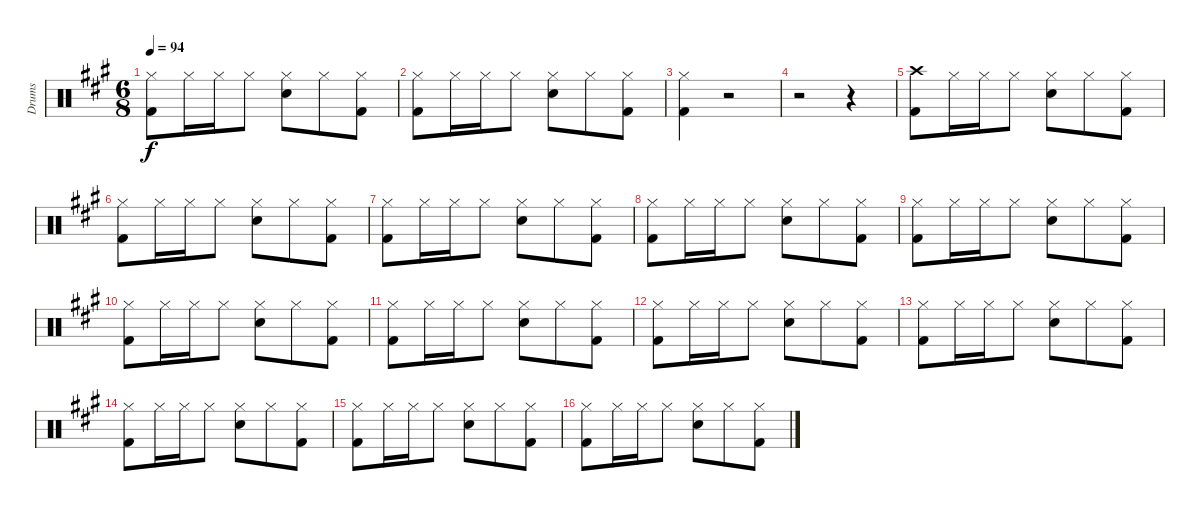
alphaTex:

\track ("Drums" "Drums") {instrument percussion}
\staff {score}
\articulation defaults
\ts (6 8)
\tempo 94
\clef neutral
\ks a
("Hi-Hat (closed)" "Kick (hit) 2").8{dy f} "Hi-Hat (closed)".16 "Hi-Hat (closed)".16 "Hi-Hat (closed)".8 ("Hi-Hat (closed)" "Snare (hit) 2").8 "Hi-Hat (closed)".8 ("Hi-Hat (closed)" "Kick (hit) 2").8 |
("Hi-Hat (closed)" "Kick (hit) 2").8 "Hi-Hat (closed)".16 "Hi-Hat (closed)".16 "Hi-Hat (closed)".8 ("Hi-Hat (closed)" "Snare (hit) 2").8 "Hi-Hat (closed)".8 ("Hi-Hat (closed)" "Kick (hit) 2").8 |
("Hi-Hat (closed)" "Kick (hit) 2").4 r.2 |
r.2 r.4 |
("Crash high (hit)" "Kick (hit) 2").8 "Hi-Hat (closed)".16 "Hi-Hat (closed)".16 "Hi-Hat (closed)".8 ("Hi-Hat (closed)" "Snare (hit) 2").8 "Hi-Hat (closed)".8 ("Hi-Hat (closed)" "Kick (hit) 2").8 |
("Hi-Hat (closed)" "Kick (hit) 2").8 "Hi-Hat (closed)".16 "Hi-Hat (closed)".16 "Hi-Hat (closed)".8 ("Hi-Hat (closed)" "Snare (hit) 2").8 "Hi-Hat (closed)".8 ("Hi-Hat (closed)" "Kick (hit) 2").8 |
("Hi-Hat (closed)" "Kick (hit) 2").8 "Hi-Hat (closed)".16 "Hi-Hat (closed)".16 "Hi-Hat (closed)".8 ("Hi-Hat (closed)" "Snare (hit) 2").8 "Hi-Hat (closed)".8 ("Hi-Hat (closed)" "Kick (hit) 2").8 |
("Hi-Hat (closed)" "Kick (hit) 2").8 "Hi-Hat (closed)".16 "Hi-Hat (closed)".16 "Hi-Hat (closed)".8 ("Hi-Hat (closed)" "Snare (hit) 2").8 "Hi-Hat (closed)".8 ("Hi-Hat (closed)" "Kick (hit) 2").8 |
("Hi-Hat (closed)" "Kick (hit) 2").8 "Hi-Hat (closed)".16 "Hi-Hat (closed)".16 "Hi-Hat (closed)".8 ("Hi-Hat (closed)" "Snare (hit) 2").8 "Hi-Hat (closed)".8 ("Hi-Hat (closed)" "Kick (hit) 2").8 |
("Hi-Hat (closed)" "Kick (hit) 2").8 "Hi-Hat (closed)".16 "Hi-Hat (closed)".16 "Hi-Hat (closed)".8 ("Hi-Hat (closed)" "Snare (hit) 2").8 "Hi-Hat (closed)".8 ("Hi-Hat (closed)" "Kick (hit) 2").8 |
("Hi-Hat (closed)" "Kick (hit) 2").8 "Hi-Hat (closed)".16 "Hi-Hat (closed)".16 "Hi-Hat (closed)".8 ("Hi-Hat (closed)" "Snare (hit) 2").8 "Hi-Hat (closed)".8 ("Hi-Hat (closed)" "Kick (hit) 2").8 |
("Hi-Hat (closed)" "Kick (hit) 2").8 "Hi-Hat (closed)".16 "Hi-Hat (closed)".16 "Hi-Hat (closed)".8 ("Hi-Hat (closed)" "Snare (hit) 2").8 "Hi-Hat (closed)".8 ("Hi-Hat (closed)" "Kick (hit) 2").8 |
("Hi-Hat (closed)" "Kick (hit) 2").8 "Hi-Hat (closed)".16 "Hi-Hat (closed)".16 "Hi-Hat (closed)".8 ("Hi-Hat (closed)" "Snare (hit) 2").8 "Hi-Hat (closed)".8 ("Hi-Hat (closed)" "Kick (hit) 2").8 |
("Hi-Hat (closed)" "Kick (hit) 2").8 "Hi-Hat (closed)".16 "Hi-Hat (closed)".16 "Hi-Hat (closed)".8 ("Hi-Hat (closed)" "Snare (hit) 2").8 "Hi-Hat (closed)".8 ("Hi-Hat (closed)" "Kick (hit) 2").8 |
("Hi-Hat (closed)" "Kick (hit) 2").8 "Hi-Hat (closed)".16 "Hi-Hat (closed)".16 "Hi-Hat (closed)".8 ("Hi-Hat (closed)" "Snare (hit) 2").8 "Hi-Hat (closed)".8 ("Hi-Hat (closed)" "Kick (hit) 2").8 |
("Hi-Hat (closed)" "Kick (hit) 2").8 "Hi-Hat (closed)".16 "Hi-Hat (closed)".16 "Hi-Hat (closed)".8 ("Hi-Hat (closed)" "Snare (hit) 2").8 "Hi-Hat (closed)".8 ("Hi-Hat (closed)" "Kick (hit) 2").8
